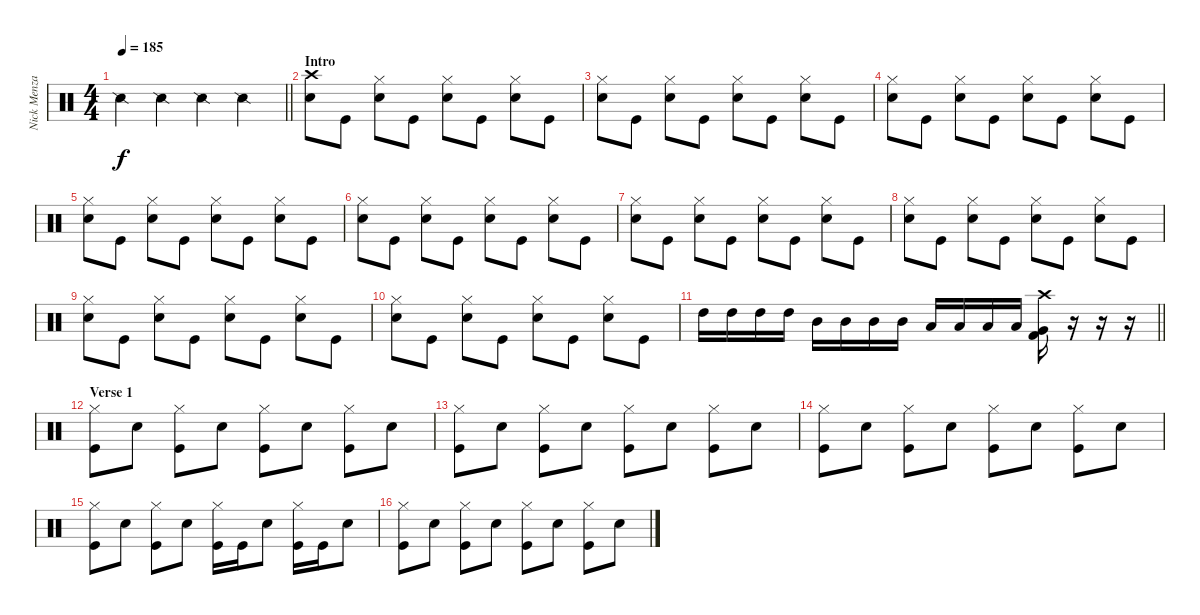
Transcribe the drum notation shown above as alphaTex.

\track ("Nick Menza" "Nick Menza") {instrument percussion}
\staff {score}
\articulation defaults
\ts (4 4)
\tempo 185
\clef neutral
\barLineRight lightlight
\ks c "Snare (side stick) 2".4{dy f} "Snare (side stick) 2".4 "Snare (side stick) 2".4 "Snare (side stick) 2".4
|
\section ("" "Intro")
("Crash high (hit)" "Snare (hit) 2").8 "Kick (hit)".8 ("Hi-Hat (closed)" "Snare (hit) 2").8 "Kick (hit)".8 ("Hi-Hat (closed)" "Snare (hit) 2").8 "Kick (hit)".8 ("Hi-Hat (closed)" "Snare (hit) 2").8 "Kick (hit)".8 |
("Hi-Hat (closed)" "Snare (hit) 2").8 "Kick (hit)".8 ("Hi-Hat (closed)" "Snare (hit) 2").8 "Kick (hit)".8 ("Hi-Hat (closed)" "Snare (hit) 2").8 "Kick (hit)".8 ("Hi-Hat (closed)" "Snare (hit) 2").8 "Kick (hit)".8 |
("Hi-Hat (closed)" "Snare (hit) 2").8 "Kick (hit)".8 ("Hi-Hat (closed)" "Snare (hit) 2").8 "Kick (hit)".8 ("Hi-Hat (closed)" "Snare (hit) 2").8 "Kick (hit)".8 ("Hi-Hat (closed)" "Snare (hit) 2").8 "Kick (hit)".8 |
("Hi-Hat (closed)" "Snare (hit) 2").8 "Kick (hit)".8 ("Hi-Hat (closed)" "Snare (hit) 2").8 "Kick (hit)".8 ("Hi-Hat (closed)" "Snare (hit) 2").8 "Kick (hit)".8 ("Hi-Hat (closed)" "Snare (hit) 2").8 "Kick (hit)".8 |
("Hi-Hat (closed)" "Snare (hit) 2").8 "Kick (hit)".8 ("Hi-Hat (closed)" "Snare (hit) 2").8 "Kick (hit)".8 ("Hi-Hat (closed)" "Snare (hit) 2").8 "Kick (hit)".8 ("Hi-Hat (closed)" "Snare (hit) 2").8 "Kick (hit)".8 |
("Hi-Hat (closed)" "Snare (hit) 2").8 "Kick (hit)".8 ("Hi-Hat (closed)" "Snare (hit) 2").8 "Kick (hit)".8 ("Hi-Hat (closed)" "Snare (hit) 2").8 "Kick (hit)".8 ("Hi-Hat (closed)" "Snare (hit) 2").8 "Kick (hit)".8 |
("Hi-Hat (closed)" "Snare (hit) 2").8 "Kick (hit)".8 ("Hi-Hat (closed)" "Snare (hit) 2").8 "Kick (hit)".8 ("Hi-Hat (closed)" "Snare (hit) 2").8 "Kick (hit)".8 ("Hi-Hat (closed)" "Snare (hit) 2").8 "Kick (hit)".8 |
("Hi-Hat (closed)" "Snare (hit) 2").8 "Kick (hit)".8 ("Hi-Hat (closed)" "Snare (hit) 2").8 "Kick (hit)".8 ("Hi-Hat (closed)" "Snare (hit) 2").8 "Kick (hit)".8 ("Hi-Hat (closed)" "Snare (hit) 2").8 "Kick (hit)".8 |
("Hi-Hat (closed)" "Snare (hit) 2").8 "Kick (hit)".8 ("Hi-Hat (closed)" "Snare (hit) 2").8 "Kick (hit)".8 ("Hi-Hat (closed)" "Snare (hit) 2").8 "Kick (hit)".8 ("Hi-Hat (closed)" "Snare (hit) 2").8 "Kick (hit)".8 |
\barLineRight lightlight "High Tom (hit)".16 "High Tom (hit)".16 "High Tom (hit)".16 "High Tom (hit)".16 "Mid Tom (hit)".16 "Mid Tom (hit)".16 "Mid Tom (hit)".16 "Mid Tom (hit)".16 "Low Tom (hit)".16 "Low Tom (hit)".16 "Low Tom (hit)".16 "Low Tom (hit)".16
("Crash high (hit)" "Very Low Tom (hit)" "Kick (hit) 2").16 r.16 r.16 r.16 |
\section ("" "Verse 1")
("Hi-Hat (closed)" "Kick (hit)").8 "Snare (hit) 2".8 ("Hi-Hat (closed)" "Kick (hit)").8 "Snare (hit) 2".8 ("Hi-Hat (closed)" "Kick (hit)").8 "Snare (hit) 2".8 ("Hi-Hat (closed)" "Kick (hit)").8 "Snare (hit) 2".8 |
("Hi-Hat (closed)" "Kick (hit)").8 "Snare (hit) 2".8 ("Hi-Hat (closed)" "Kick (hit)").8 "Snare (hit) 2".8 ("Hi-Hat (closed)" "Kick (hit)").8 "Snare (hit) 2".8 ("Hi-Hat (closed)" "Kick (hit)").8 "Snare (hit) 2".8 |
("Hi-Hat (closed)" "Kick (hit)").8 "Snare (hit) 2".8 ("Hi-Hat (closed)" "Kick (hit)").8 "Snare (hit) 2".8 ("Hi-Hat (closed)" "Kick (hit)").8 "Snare (hit) 2".8 ("Hi-Hat (closed)" "Kick (hit)").8 "Snare (hit) 2".8 |
("Hi-Hat (closed)" "Kick (hit)").8 "Snare (hit) 2".8 ("Hi-Hat (closed)" "Kick (hit)").8 "Snare (hit) 2".8 ("Hi-Hat (closed)" "Kick (hit)").16 "Kick (hit)".16 "Snare (hit) 2".8 ("Hi-Hat (closed)" "Kick (hit)").16 "Kick (hit)".16 "Snare (hit) 2".8 |
("Hi-Hat (closed)" "Kick (hit)").8 "Snare (hit) 2".8 ("Hi-Hat (closed)" "Kick (hit)").8 "Snare (hit) 2".8 ("Hi-Hat (closed)" "Kick (hit)").8 "Snare (hit) 2".8 ("Hi-Hat (closed)" "Kick (hit)").8 "Snare (hit) 2".8
